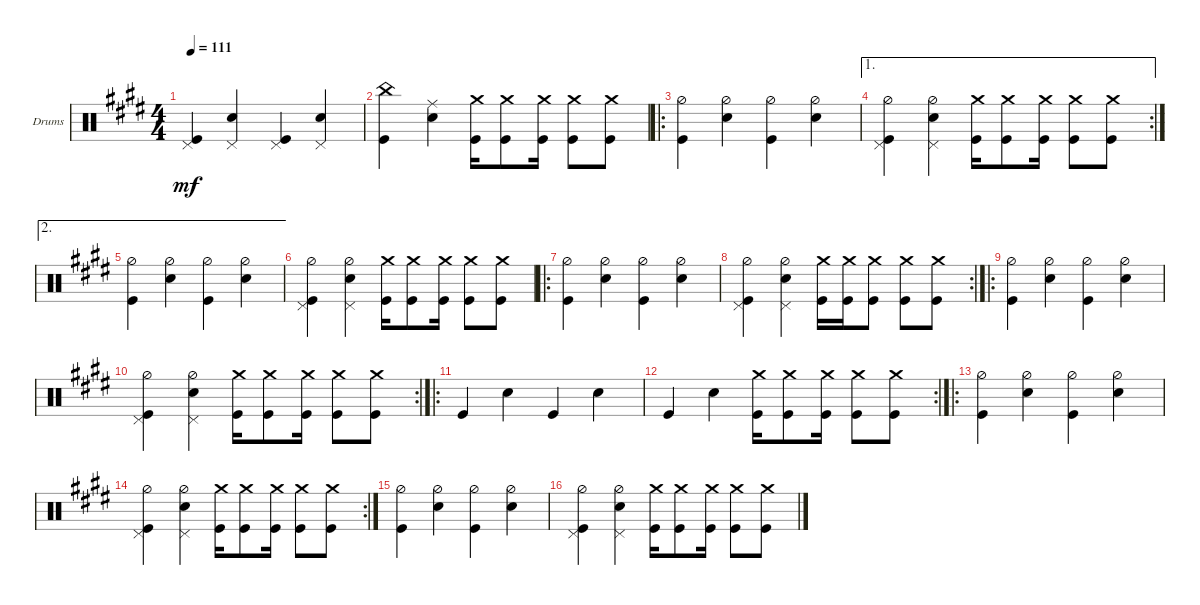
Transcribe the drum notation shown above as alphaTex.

\defaultSystemsLayout 4
\bracketExtendMode groupsimilarinstruments
\firstSystemTrackNameOrientation horizontal
\otherSystemsTrackNameOrientation horizontal
\track ("Drumkit" "Drums") {multiBarRest instrument percussion}
\staff {score}
\articulation defaults
\ts (4 4)
\tempo 111
\clef neutral
\ks e
("Kick (hit)" "Pedal Hi-Hat (hit)").4{dy mf} ("Snare (hit) 2" "Pedal Hi-Hat (hit)").4 ("Kick (hit)" "Pedal Hi-Hat (hit)").4 ("Snare (hit) 2" "Pedal Hi-Hat (hit)").4 |
("Kick (hit)" "China (hit)").4 ("Snare (hit) 2" "Ride (middle)").4 ("Kick (hit)" "Crash medium (hit)").16 ("Kick (hit)" "Crash medium (hit)").8 ("Kick (hit)" "Crash medium (hit)").16 ("Kick (hit)" "Crash medium (hit)").8 ("Kick (hit)" "Crash medium (hit)").8 |
\ro
("Kick (hit)" "Hi-Hat (half)").4 ("Snare (hit) 2" "Hi-Hat (half)").4 ("Kick (hit)" "Hi-Hat (half)").4 ("Snare (hit) 2" "Hi-Hat (half)").4 |
\ae 1
\rc 2
("Kick (hit)" "Pedal Hi-Hat (hit)" "Hi-Hat (half)").4 ("Snare (hit) 2" "Pedal Hi-Hat (hit)" "Hi-Hat (half)").4 ("Kick (hit)" "Crash medium (hit)").16 ("Kick (hit)" "Crash medium (hit)").8 ("Kick (hit)" "Crash medium (hit)").16 ("Kick (hit)" "Crash medium (hit)").8 ("Kick (hit)" "Crash medium (hit)").8 |
\ae 2
("Kick (hit)" "Hi-Hat (half)").4 ("Snare (hit) 2" "Hi-Hat (half)").4 ("Kick (hit)" "Hi-Hat (half)").4 ("Snare (hit) 2" "Hi-Hat (half)").4 |
("Kick (hit)" "Pedal Hi-Hat (hit)" "Hi-Hat (half)").4 ("Snare (hit) 2" "Pedal Hi-Hat (hit)" "Hi-Hat (half)").4 ("Kick (hit)" "Crash medium (hit)").16 ("Kick (hit)" "Crash medium (hit)").8 ("Kick (hit)" "Crash medium (hit)").16 ("Kick (hit)" "Crash medium (hit)").8 ("Kick (hit)" "Crash medium (hit)").8 |
\ro
("Kick (hit)" "Hi-Hat (half)").4 ("Snare (hit) 2" "Hi-Hat (half)").4 ("Kick (hit)" "Hi-Hat (half)").4 ("Snare (hit) 2" "Hi-Hat (half)").4 |
\rc 2
("Kick (hit)" "Pedal Hi-Hat (hit)" "Hi-Hat (half)").4 ("Snare (hit) 2" "Pedal Hi-Hat (hit)" "Hi-Hat (half)").4 ("Kick (hit)" "Crash medium (hit)").16 ("Kick (hit)" "Crash medium (hit)").16 ("Kick (hit)" "Crash medium (hit)").8 ("Kick (hit)" "Crash medium (hit)").8 ("Kick (hit)" "Crash medium (hit)").8 |
\ro
("Kick (hit)" "Hi-Hat (half)").4 ("Snare (hit) 2" "Hi-Hat (half)").4 ("Kick (hit)" "Hi-Hat (half)").4 ("Snare (hit) 2" "Hi-Hat (half)").4 |
\rc 2
("Kick (hit)" "Pedal Hi-Hat (hit)" "Hi-Hat (half)").4 ("Snare (hit) 2" "Pedal Hi-Hat (hit)" "Hi-Hat (half)").4 ("Kick (hit)" "Crash medium (hit)").16 ("Kick (hit)" "Crash medium (hit)").8 ("Kick (hit)" "Crash medium (hit)").16 ("Kick (hit)" "Crash medium (hit)").8 ("Kick (hit)" "Crash medium (hit)").8 |
\ro "Kick (hit)".4 "Snare (hit) 2".4 "Kick (hit)".4 "Snare (hit) 2".4
|
\rc 2 "Kick (hit)".4 "Snare (hit) 2".4
("Kick (hit)" "Crash medium (hit)").16 ("Kick (hit)" "Crash medium (hit)").8 ("Kick (hit)" "Crash medium (hit)").16 ("Kick (hit)" "Crash medium (hit)").8 ("Kick (hit)" "Crash medium (hit)").8 |
\ro
("Kick (hit)" "Hi-Hat (half)").4 ("Snare (hit) 2" "Hi-Hat (half)").4 ("Kick (hit)" "Hi-Hat (half)").4 ("Snare (hit) 2" "Hi-Hat (half)").4 |
\rc 2
("Kick (hit)" "Pedal Hi-Hat (hit)" "Hi-Hat (half)").4 ("Snare (hit) 2" "Pedal Hi-Hat (hit)" "Hi-Hat (half)").4 ("Kick (hit)" "Crash medium (hit)").16 ("Kick (hit)" "Crash medium (hit)").8 ("Kick (hit)" "Crash medium (hit)").16 ("Kick (hit)" "Crash medium (hit)").8 ("Kick (hit)" "Crash medium (hit)").8 |
("Kick (hit)" "Hi-Hat (half)").4 ("Snare (hit) 2" "Hi-Hat (half)").4 ("Kick (hit)" "Hi-Hat (half)").4 ("Snare (hit) 2" "Hi-Hat (half)").4 |
("Kick (hit)" "Pedal Hi-Hat (hit)" "Hi-Hat (half)").4 ("Snare (hit) 2" "Pedal Hi-Hat (hit)" "Hi-Hat (half)").4 ("Kick (hit)" "Crash medium (hit)").16 ("Kick (hit)" "Crash medium (hit)").8 ("Kick (hit)" "Crash medium (hit)").16 ("Kick (hit)" "Crash medium (hit)").8 ("Kick (hit)" "Crash medium (hit)").8
